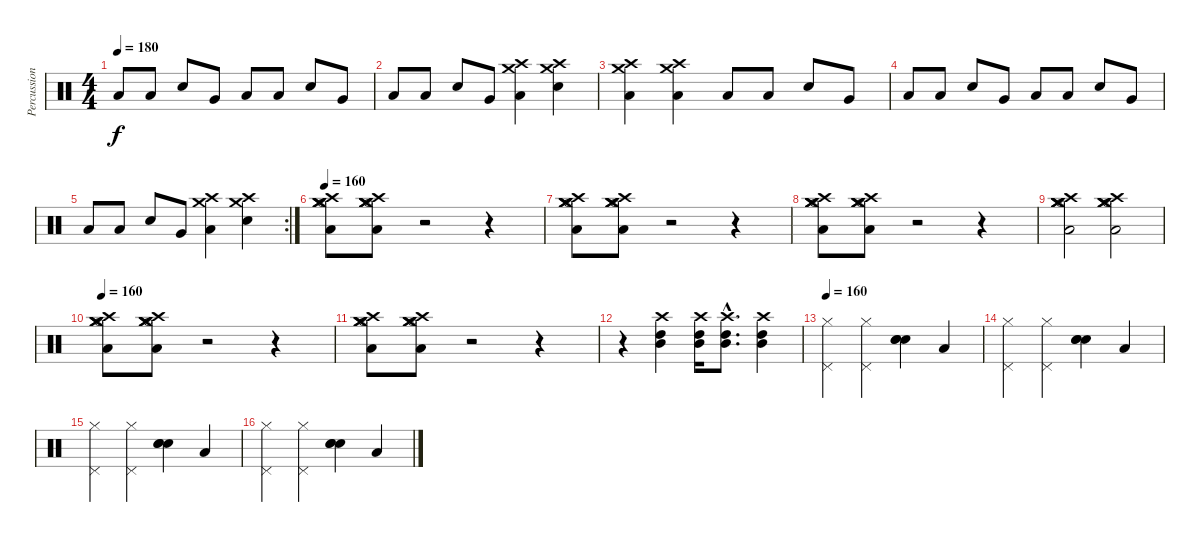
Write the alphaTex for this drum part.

\track ("Percussions" "Percussion") {instrument percussion}
\staff {score}
\articulation defaults
\ts (4 4)
\tempo 180
\clef neutral
\ks c "Low Floor Tom (hit)".8{dy f} "Low Floor Tom (hit)".8 "Electric Snare (hit)".8 "Very Low Tom (hit)".8 "Low Floor Tom (hit)".8 "Low Floor Tom (hit)".8 "Electric Snare (hit)".8 "Very Low Tom (hit)".8
|
"Low Floor Tom (hit)".8 "Low Floor Tom (hit)".8 "Electric Snare (hit)".8 "Very Low Tom (hit)".8 ("Crash high (hit)" "Low Floor Tom (hit)" "Crash medium (hit)").4 ("Crash high (hit)" "Electric Snare (hit)" "Crash medium (hit)").4 |
("Crash high (hit)" "Low Floor Tom (hit)" "Crash medium (hit)").4 ("Crash high (hit)" "Low Floor Tom (hit)" "Crash medium (hit)").4 "Low Floor Tom (hit)".8 "Low Floor Tom (hit)".8 "Electric Snare (hit)".8 "Very Low Tom (hit)".8 |
"Low Floor Tom (hit)".8 "Low Floor Tom (hit)".8 "Electric Snare (hit)".8 "Very Low Tom (hit)".8 "Low Floor Tom (hit)".8 "Low Floor Tom (hit)".8 "Electric Snare (hit)".8 "Very Low Tom (hit)".8 |
\rc 2 "Low Floor Tom (hit)".8 "Low Floor Tom (hit)".8 "Electric Snare (hit)".8 "Very Low Tom (hit)".8
("Crash high (hit)" "Low Floor Tom (hit)" "Crash medium (hit)").4 ("Crash high (hit)" "Electric Snare (hit)" "Crash medium (hit)").4 |
\tempo 160
("Crash high (hit)" "Low Floor Tom (hit)" "Crash medium (hit)" "Hi-Hat (open)" "Crash medium (hit)" "Crash medium (hit)").8 ("Crash high (hit)" "Low Floor Tom (hit)" "Crash medium (hit)" "Hi-Hat (open)" "Crash medium (hit)" "Crash medium (hit)").8 r.2 r.4 |
("Crash high (hit)" "Low Floor Tom (hit)" "Crash medium (hit)" "Hi-Hat (open)" "Crash medium (hit)" "Crash medium (hit)").8 ("Crash high (hit)" "Low Floor Tom (hit)" "Crash medium (hit)" "Hi-Hat (open)" "Crash medium (hit)" "Crash medium (hit)").8 r.2 r.4 |
("Crash high (hit)" "Low Floor Tom (hit)" "Crash medium (hit)" "Hi-Hat (open)" "Crash medium (hit)" "Crash medium (hit)").8 ("Crash high (hit)" "Low Floor Tom (hit)" "Crash medium (hit)" "Hi-Hat (open)" "Crash medium (hit)" "Crash medium (hit)").8 r.2 r.4 |
("Crash high (hit)" "Low Floor Tom (hit)" "Crash medium (hit)" "Hi-Hat (open)" "Crash medium (hit)" "Crash medium (hit)").2 ("Crash high (hit)" "Low Floor Tom (hit)" "Crash medium (hit)" "Hi-Hat (open)" "Crash medium (hit)" "Crash medium (hit)").2 |
\tempo 160
("Crash high (hit)" "Low Floor Tom (hit)" "Crash medium (hit)" "Hi-Hat (open)" "Crash medium (hit)" "Crash medium (hit)").8 ("Crash high (hit)" "Low Floor Tom (hit)" "Crash medium (hit)" "Hi-Hat (open)" "Crash medium (hit)" "Crash medium (hit)").8 r.2 r.4 |
("Crash high (hit)" "Low Floor Tom (hit)" "Crash medium (hit)" "Hi-Hat (open)" "Crash medium (hit)" "Crash medium (hit)").8 ("Crash high (hit)" "Low Floor Tom (hit)" "Crash medium (hit)" "Hi-Hat (open)" "Crash medium (hit)" "Crash medium (hit)").8 r.2 r.4 |
r.4 ("Crash high (hit)" "High Tom (hit)" "Mid Tom (hit)").4 ("Crash high (hit)" "High Tom (hit)" "Mid Tom (hit)").16 ("Crash high (hit)"{hac} "High Tom (hit)"{hac} "Mid Tom (hit)"{hac}).8{d} ("Crash high (hit)" "High Tom (hit)" "Mid Tom (hit)").4 |
\tempo 160
("Pedal Hi-Hat (hit)" "Hi-Hat (closed)").4 ("Pedal Hi-Hat (hit)" "Hi-Hat (closed)").4 ("Electric Snare (hit)" "Electric Snare (hit)" "Electric Snare (hit)").4 "Low Floor Tom (hit)".4 |
("Pedal Hi-Hat (hit)" "Hi-Hat (closed)").4 ("Pedal Hi-Hat (hit)" "Hi-Hat (closed)").4 ("Electric Snare (hit)" "Electric Snare (hit)" "Electric Snare (hit)").4 "Low Floor Tom (hit)".4 |
("Pedal Hi-Hat (hit)" "Hi-Hat (closed)").4 ("Pedal Hi-Hat (hit)" "Hi-Hat (closed)").4 ("Electric Snare (hit)" "Electric Snare (hit)" "Electric Snare (hit)").4 "Low Floor Tom (hit)".4 |
("Pedal Hi-Hat (hit)" "Hi-Hat (closed)").4 ("Pedal Hi-Hat (hit)" "Hi-Hat (closed)").4 ("Electric Snare (hit)" "Electric Snare (hit)" "Electric Snare (hit)").4 "Low Floor Tom (hit)".4
